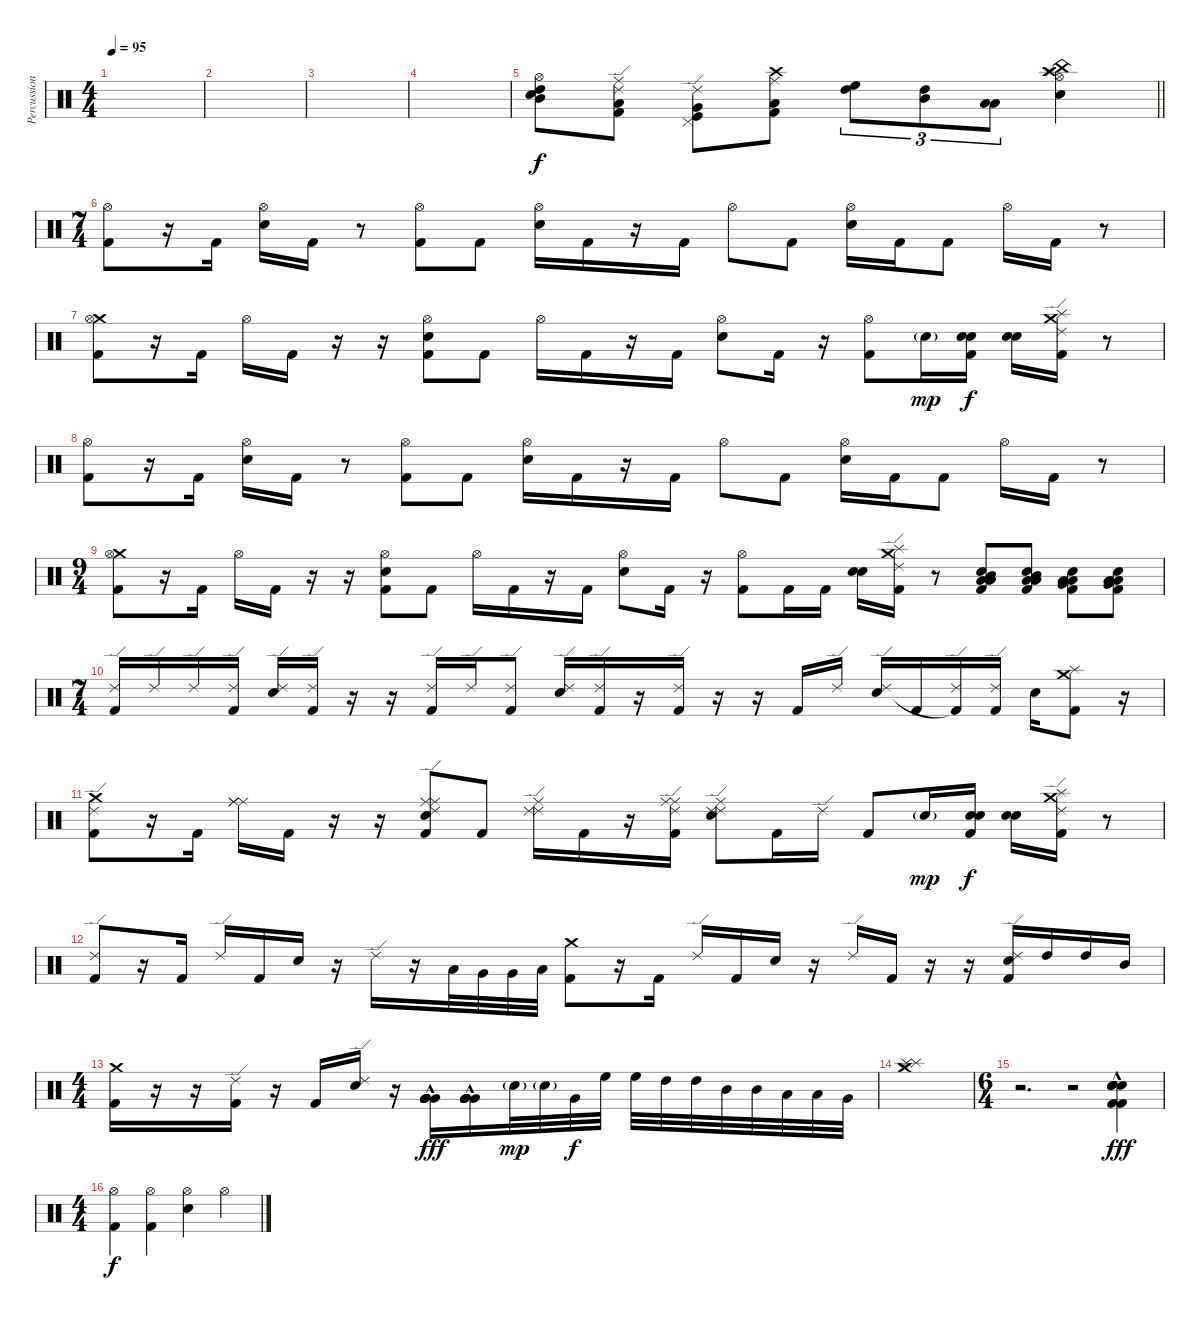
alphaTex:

\track ("Percussion" "Percussion") {instrument percussion}
\staff {score}
\articulation defaults
\ts (4 4)
\tempo 95
\clef neutral
\ks c
|
|
|
|
\barLineRight lightlight
("Hi-Hat (open)" "High Tom (hit)" "Mid Tom (hit)" "Snare (hit) 2").8 ("Ride (edge) 2" "Low Tom (hit)" "Ride (middle)" "Kick (hit) 2").8 ("Ride (edge) 2" "Very Low Tom (hit)" "Pedal Hi-Hat (hit)" "Kick (hit)").8 ("Crash high (hit)" "Low Tom (hit)" "Ride (middle)" "Kick (hit) 2").8 ("High Tom (hit)" "High Floor Tom (hit)").8{tu (3 2)} ("Mid Tom (hit)" "High Tom (hit)").8{tu (3 2)} ("Low Tom (hit)" "Low Floor Tom (hit)").8{tu (3 2)} ("China (hit)" "Crash high (hit)" "Hi-Hat (open)" "Splash (hit)" "Snare (hit) 2").4 |
\ts (7 4)
\section ("" "")
("Hi-Hat (open)" "Kick (hit) 2").8 r.16 "Kick (hit) 2".16 ("Hi-Hat (open)" "Snare (hit) 2").16 "Kick (hit) 2".16 r.8 ("Hi-Hat (open)" "Kick (hit) 2").8 "Kick (hit) 2".8 ("Hi-Hat (open)" "Snare (hit) 2").16 "Kick (hit) 2".16 r.16 "Kick (hit) 2".16 "Hi-Hat (open)".8 "Kick (hit) 2".8 ("Hi-Hat (open)" "Snare (hit) 2").16 "Kick (hit) 2".16 "Kick (hit) 2".8 "Hi-Hat (open)".16 "Kick (hit) 2".16 r.8 |
("Crash medium (hit)" "Hi-Hat (open)" "Kick (hit) 2").8 r.16 "Kick (hit) 2".16 "Hi-Hat (open)".16 "Kick (hit) 2".16 r.16 r.16 ("Hi-Hat (open)" "Snare (hit) 2" "Kick (hit) 2").8 "Kick (hit) 2".8 "Hi-Hat (open)".16 "Kick (hit) 2".16 r.16 "Kick (hit) 2".16 ("Hi-Hat (open)" "Snare (hit) 2").8 "Kick (hit) 2".16 r.16 ("Hi-Hat (open)" "Kick (hit) 2").8 "Snare (hit) 2"{g}.16{dy mp} ("Snare (hit) 2" "Snare (hit) 2" "Kick (hit) 2").16{dy f} ("Snare (hit) 2" "Snare (hit) 2").16 ("Ride (edge) 2" "Crash medium (hit)" "Splash (hit)" "Kick (hit) 2").16 r.8 |
("Hi-Hat (open)" "Kick (hit) 2").8 r.16 "Kick (hit) 2".16 ("Hi-Hat (open)" "Snare (hit) 2").16 "Kick (hit) 2".16 r.8 ("Hi-Hat (open)" "Kick (hit) 2").8 "Kick (hit) 2".8 ("Hi-Hat (open)" "Snare (hit) 2").16 "Kick (hit) 2".16 r.16 "Kick (hit) 2".16 "Hi-Hat (open)".8 "Kick (hit) 2".8 ("Hi-Hat (open)" "Snare (hit) 2").16 "Kick (hit) 2".16 "Kick (hit) 2".8 "Hi-Hat (open)".16 "Kick (hit) 2".16 r.8 |
\ts (9 4)
("Crash medium (hit)" "Hi-Hat (open)" "Kick (hit) 2").8 r.16 "Kick (hit) 2".16 "Hi-Hat (open)".16 "Kick (hit) 2".16 r.16 r.16 ("Hi-Hat (open)" "Snare (hit) 2" "Kick (hit) 2").8 "Kick (hit) 2".8 "Hi-Hat (open)".16 "Kick (hit) 2".16 r.16 "Kick (hit) 2".16 ("Hi-Hat (open)" "Snare (hit) 2").8 "Kick (hit) 2".16 r.16 ("Hi-Hat (open)" "Kick (hit) 2").8 "Kick (hit) 2".16 "Kick (hit) 2".16 ("Snare (hit) 2" "Snare (hit) 2").16 ("Ride (edge) 2" "Crash medium (hit)" "Splash (hit)" "Kick (hit) 2").16 r.8 ("Snare (hit) 2" "Mid Tom (hit)" "Low Tom (hit)" "Low Floor Tom (hit)" "Kick (hit) 2").8 ("Snare (hit) 2" "Mid Tom (hit)" "Low Tom (hit)" "Low Floor Tom (hit)" "Kick (hit) 2").8 ("Snare (hit) 2" "Low Tom (hit)" "Very Low Tom (hit)" "Low Floor Tom (hit)" "Kick (hit) 2").8 ("Snare (hit) 2" "Low Tom (hit)" "Very Low Tom (hit)" "Low Floor Tom (hit)" "Kick (hit) 2").8 |
\ts (7 4)
("Ride (edge) 2" "Kick (hit) 2").16 "Ride (edge) 2".16 "Ride (edge) 2".16 ("Ride (edge) 2" "Kick (hit) 2").16 ("Ride (edge) 2" "Snare (hit) 2").16 ("Ride (edge) 2" "Kick (hit) 2").16 r.16 r.16 ("Ride (edge) 2" "Kick (hit) 2").16 "Ride (edge) 2".16 ("Ride (edge) 2" "Kick (hit) 2").8 ("Ride (edge) 2" "Snare (hit) 2").16 ("Ride (edge) 2" "Kick (hit) 2").16 r.16 ("Ride (edge) 2" "Kick (hit) 2").16 r.16 r.16 "Kick (hit) 2".16 "Ride (edge) 2".16 ("Ride (edge) 2" "Snare (hit) 2").16 "Kick (hit) 2".16 ("Ride (edge) 2" "Kick (hit) 2"{t}).16 ("Ride (edge) 2" "Kick (hit) 2").16 "Snare (hit) 2".16 ("Crash medium (hit)" "Splash (hit)" "Kick (hit) 2").8 r.16 |
("Crash medium (hit)" "Ride (edge) 2" "Kick (hit) 2").8 r.16 "Kick (hit) 2".16 ("Ride (middle)" "Ride (middle)" "Ride (middle)").16 "Kick (hit) 2".16 r.16 r.16 ("Ride (middle)" "Ride (middle)" "Ride (edge) 2" "Snare (hit) 2" "Kick (hit) 2").8 "Kick (hit) 2".8 ("Ride (edge) 2" "Ride (middle)" "Ride (edge) 2").16 "Kick (hit) 2".16 r.16 ("Ride (middle)" "Ride (middle)" "Ride (edge) 2" "Kick (hit) 2").16 ("Ride (middle)" "Ride (edge) 2" "Ride (edge) 2" "Snare (hit) 2").8 "Kick (hit) 2".16 "Ride (edge) 2".16 "Kick (hit) 2".8 "Snare (hit) 2"{g}.16{dy mp} ("Snare (hit) 2" "Snare (hit) 2" "Kick (hit) 2").16{dy f} ("Snare (hit) 2" "Snare (hit) 2").16 ("Ride (edge) 2" "Crash medium (hit)" "Splash (hit)" "Kick (hit) 2").16 r.8 |
("Ride (edge) 2" "Kick (hit) 2").8 r.16 "Kick (hit) 2".16 "Ride (edge) 2".16 "Kick (hit) 2".16 "Snare (hit) 2".16 r.16 "Ride (edge) 2".16 r.16 "Low Tom (hit)".32 "Very Low Tom (hit)".32 "Very Low Tom (hit)".32 "Low Floor Tom (hit)".32 ("Crash medium (hit)" "Kick (hit) 2").8 r.16 "Kick (hit) 2".16 "Ride (edge) 2".16 "Kick (hit) 2".16 "Snare (hit) 2".16 r.16 "Ride (edge) 2".16 "Kick (hit) 2".16 r.16 r.16 ("Ride (edge) 2" "Snare (hit) 2" "Kick (hit) 2").16 "High Tom (hit)".16 "High Tom (hit)".16 "Mid Tom (hit)".16 |
\ts (4 4)
("Crash medium (hit)" "Kick (hit) 2").16 r.16 r.16 ("Ride (edge) 2" "Kick (hit) 2").16 r.16 "Kick (hit) 2".16 ("Ride (edge) 2" "Snare (hit) 2").16 r.16 ("Very Low Tom (hit)"{hac} "Very Low Tom (hit)"{hac} "Very Low Tom (hit)"{hac} "Very Low Tom (hit)"{hac} "Very Low Tom (hit)"{hac} "Very Low Tom (hit)"{hac}).16{dy fff} ("Very Low Tom (hit)"{hac} "Very Low Tom (hit)"{hac} "Very Low Tom (hit)"{hac} "Very Low Tom (hit)"{hac} "Very Low Tom (hit)"{hac} "Very Low Tom (hit)"{hac}).16 "Snare (hit) 2"{g}.32{dy mp} "Snare (hit) 2"{g}.32 "Very Low Tom (hit)".32{dy f} "High Floor Tom (hit)".32 "High Floor Tom (hit)".32 "High Tom (hit)".32 "High Tom (hit)".32 "Mid Tom (hit)".32 "Mid Tom (hit)".32 "Low Tom (hit)".32 "Low Tom (hit)".32 "Very Low Tom (hit)".32 |
("Crash medium (hit)" "Splash (hit)" "Crash medium (hit)" "Splash (hit)").1 |
\ts (6 4)
r.2{d} r.2 ("Kick (hit) 2"{hac} "Electric Snare (hit)"{hac} "Electric Snare (hit)"{hac} "Snare (hit) 2"{hac} "Snare (hit) 2"{hac} "Kick (hit) 2"{hac}).4{dy fff} |
\ts (4 4)
("Hi-Hat (open)" "Kick (hit) 2").4{dy f} ("Hi-Hat (open)" "Kick (hit) 2").4 ("Hi-Hat (open)" "Snare (hit) 2").4 "Hi-Hat (open)".4
